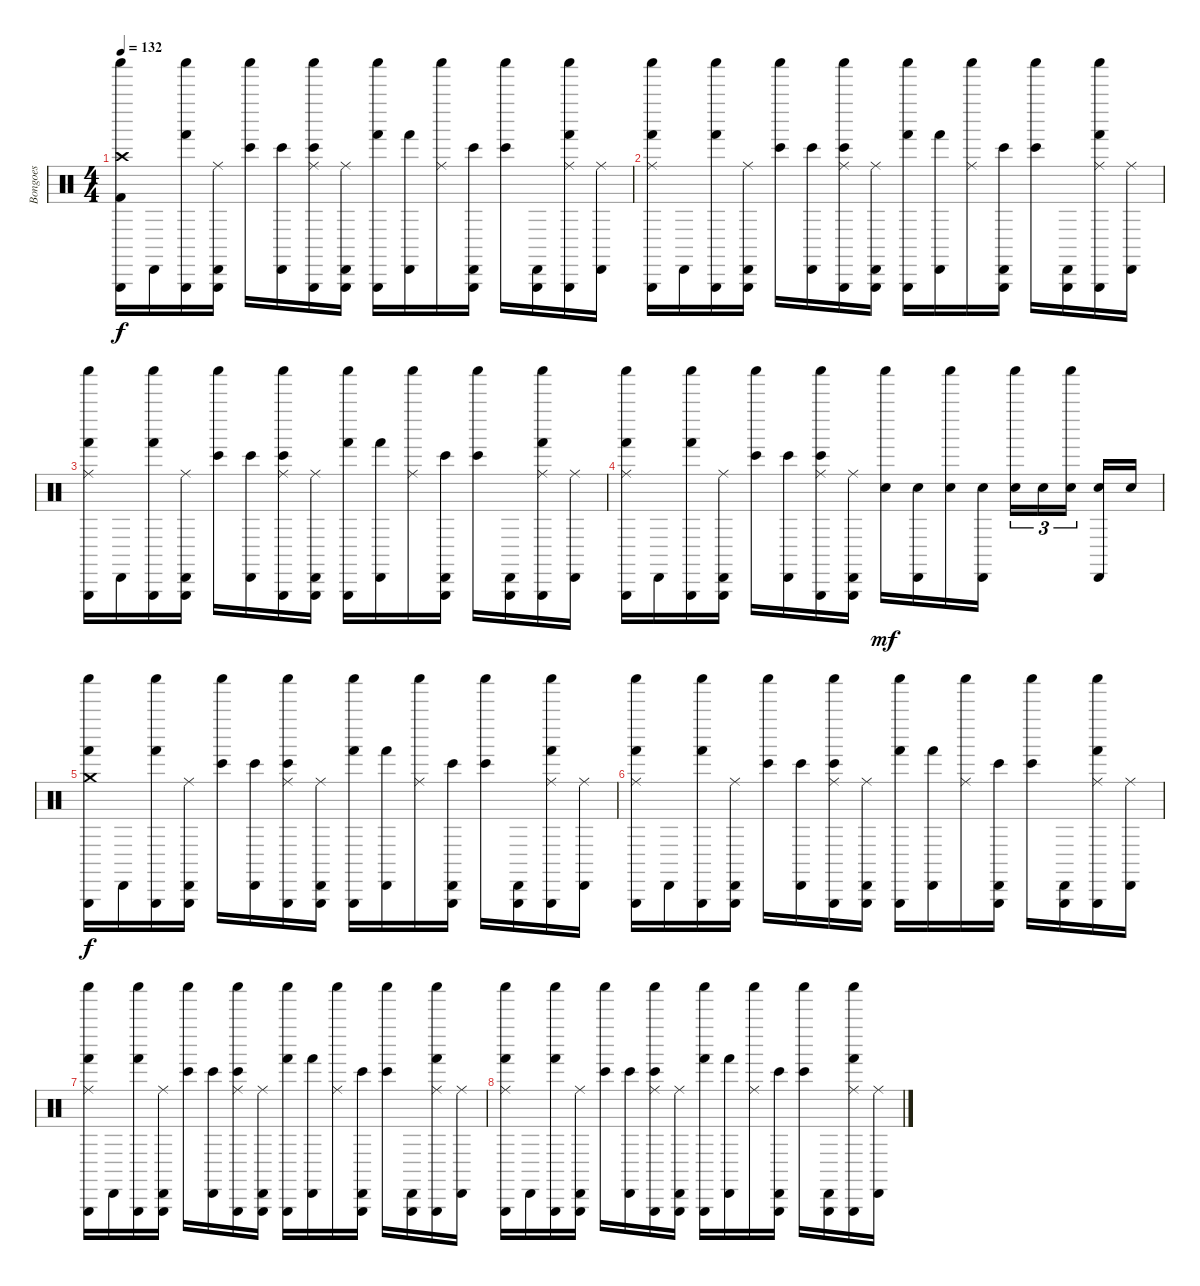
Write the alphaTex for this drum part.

\track ("Bongoes" "Bongoes") {instrument percussion}
\staff {score}
\articulation defaults
\ts (4 4)
\tempo 132
\clef neutral
\ks c
("Shaker (hit)" "Triangle (hit)" "Kick (hit) 2" "Crash high (hit)").16{dy f} "Cabasa (hit)".16 ("Shaker (hit)" "Triangle (hit)" "Hand (hit)").16 ("Cabasa (hit)" "Triangle (hit)" "Ride (middle)").16 ("Shaker (hit)" "Bongo High (hit)").16 ("Cabasa (hit)" "Bongo High (hit)").16 ("Shaker (hit)" "Triangle (hit)" "Bongo High (hit)" "Ride (middle)").16 ("Cabasa (hit)" "Triangle (hit)" "Ride (middle)").16 ("Shaker (hit)" "Triangle (hit)" "Hand (hit)").16 ("Cabasa (hit)" "Hand (hit)").16 ("Shaker (hit)" "Ride (middle)").16 ("Cabasa (hit)" "Triangle (hit)" "Bongo High (hit)").16 ("Shaker (hit)" "Bongo High (hit)").16 ("Cabasa (hit)" "Triangle (hit)").16 ("Shaker (hit)" "Triangle (hit)" "Hand (hit)" "Ride (middle)").16 ("Cabasa (hit)" "Ride (middle)").16 |
("Shaker (hit)" "Triangle (hit)" "Hand (hit)" "Ride (middle)").16 "Cabasa (hit)".16 ("Shaker (hit)" "Triangle (hit)" "Hand (hit)").16 ("Cabasa (hit)" "Triangle (hit)" "Ride (middle)").16 ("Shaker (hit)" "Bongo High (hit)").16 ("Cabasa (hit)" "Bongo High (hit)").16 ("Shaker (hit)" "Triangle (hit)" "Bongo High (hit)" "Ride (middle)").16 ("Cabasa (hit)" "Triangle (hit)" "Ride (middle)").16 ("Shaker (hit)" "Triangle (hit)" "Hand (hit)").16 ("Cabasa (hit)" "Hand (hit)").16 ("Shaker (hit)" "Ride (middle)").16 ("Cabasa (hit)" "Triangle (hit)" "Bongo High (hit)").16 ("Shaker (hit)" "Bongo High (hit)").16 ("Cabasa (hit)" "Triangle (hit)").16 ("Shaker (hit)" "Triangle (hit)" "Hand (hit)" "Ride (middle)").16 ("Cabasa (hit)" "Ride (middle)").16 |
("Shaker (hit)" "Triangle (hit)" "Hand (hit)" "Ride (middle)").16 "Cabasa (hit)".16 ("Shaker (hit)" "Triangle (hit)" "Hand (hit)").16 ("Cabasa (hit)" "Triangle (hit)" "Ride (middle)").16 ("Shaker (hit)" "Bongo High (hit)").16 ("Cabasa (hit)" "Bongo High (hit)").16 ("Shaker (hit)" "Triangle (hit)" "Bongo High (hit)" "Ride (middle)").16 ("Cabasa (hit)" "Triangle (hit)" "Ride (middle)").16 ("Shaker (hit)" "Triangle (hit)" "Hand (hit)").16 ("Cabasa (hit)" "Hand (hit)").16 ("Shaker (hit)" "Ride (middle)").16 ("Cabasa (hit)" "Triangle (hit)" "Bongo High (hit)").16 ("Shaker (hit)" "Bongo High (hit)").16 ("Cabasa (hit)" "Triangle (hit)").16 ("Shaker (hit)" "Triangle (hit)" "Hand (hit)" "Ride (middle)").16 ("Cabasa (hit)" "Ride (middle)").16 |
("Shaker (hit)" "Triangle (hit)" "Hand (hit)" "Ride (middle)").16 "Cabasa (hit)".16 ("Shaker (hit)" "Triangle (hit)" "Hand (hit)").16 ("Cabasa (hit)" "Triangle (hit)" "Ride (middle)").16 ("Shaker (hit)" "Bongo High (hit)").16 ("Cabasa (hit)" "Bongo High (hit)").16 ("Shaker (hit)" "Triangle (hit)" "Bongo High (hit)" "Ride (middle)").16 ("Cabasa (hit)" "Triangle (hit)" "Ride (middle)").16 ("Shaker (hit)" "Snare (hit) 2").16{dy mf} ("Cabasa (hit)" "Snare (hit) 2").16 ("Shaker (hit)" "Snare (hit) 2").16 ("Cabasa (hit)" "Snare (hit) 2").16 ("Shaker (hit)" "Snare (hit) 2").16{tu (3 2)} "Snare (hit) 2".16{tu (3 2)} ("Shaker (hit)" "Snare (hit) 2").16{tu (3 2)} ("Cabasa (hit)" "Snare (hit) 2").16 "Snare (hit) 2".16 |
("Shaker (hit)" "Triangle (hit)" "Hand (hit)" "Crash medium (hit)").16{dy f} "Cabasa (hit)".16 ("Shaker (hit)" "Triangle (hit)" "Hand (hit)").16 ("Cabasa (hit)" "Triangle (hit)" "Ride (middle)").16 ("Shaker (hit)" "Bongo High (hit)").16 ("Cabasa (hit)" "Bongo High (hit)").16 ("Shaker (hit)" "Triangle (hit)" "Bongo High (hit)" "Ride (middle)").16 ("Cabasa (hit)" "Triangle (hit)" "Ride (middle)").16 ("Shaker (hit)" "Triangle (hit)" "Hand (hit)").16 ("Cabasa (hit)" "Hand (hit)").16 ("Shaker (hit)" "Ride (middle)").16 ("Cabasa (hit)" "Triangle (hit)" "Bongo High (hit)").16 ("Shaker (hit)" "Bongo High (hit)").16 ("Cabasa (hit)" "Triangle (hit)").16 ("Shaker (hit)" "Triangle (hit)" "Hand (hit)" "Ride (middle)").16 ("Cabasa (hit)" "Ride (middle)").16 |
("Shaker (hit)" "Triangle (hit)" "Hand (hit)" "Ride (middle)").16 "Cabasa (hit)".16 ("Shaker (hit)" "Triangle (hit)" "Hand (hit)").16 ("Cabasa (hit)" "Triangle (hit)" "Ride (middle)").16 ("Shaker (hit)" "Bongo High (hit)").16 ("Cabasa (hit)" "Bongo High (hit)").16 ("Shaker (hit)" "Triangle (hit)" "Bongo High (hit)" "Ride (middle)").16 ("Cabasa (hit)" "Triangle (hit)" "Ride (middle)").16 ("Shaker (hit)" "Triangle (hit)" "Hand (hit)").16 ("Cabasa (hit)" "Hand (hit)").16 ("Shaker (hit)" "Ride (middle)").16 ("Cabasa (hit)" "Triangle (hit)" "Bongo High (hit)").16 ("Shaker (hit)" "Bongo High (hit)").16 ("Cabasa (hit)" "Triangle (hit)").16 ("Shaker (hit)" "Triangle (hit)" "Hand (hit)" "Ride (middle)").16 ("Cabasa (hit)" "Ride (middle)").16 |
("Shaker (hit)" "Triangle (hit)" "Hand (hit)" "Ride (middle)").16 "Cabasa (hit)".16 ("Shaker (hit)" "Triangle (hit)" "Hand (hit)").16 ("Cabasa (hit)" "Triangle (hit)" "Ride (middle)").16 ("Shaker (hit)" "Bongo High (hit)").16 ("Cabasa (hit)" "Bongo High (hit)").16 ("Shaker (hit)" "Triangle (hit)" "Bongo High (hit)" "Ride (middle)").16 ("Cabasa (hit)" "Triangle (hit)" "Ride (middle)").16 ("Shaker (hit)" "Triangle (hit)" "Hand (hit)").16 ("Cabasa (hit)" "Hand (hit)").16 ("Shaker (hit)" "Ride (middle)").16 ("Cabasa (hit)" "Triangle (hit)" "Bongo High (hit)").16 ("Shaker (hit)" "Bongo High (hit)").16 ("Cabasa (hit)" "Triangle (hit)").16 ("Shaker (hit)" "Triangle (hit)" "Hand (hit)" "Ride (middle)").16 ("Cabasa (hit)" "Ride (middle)").16 |
("Shaker (hit)" "Triangle (hit)" "Hand (hit)" "Ride (middle)").16 "Cabasa (hit)".16 ("Shaker (hit)" "Triangle (hit)" "Hand (hit)").16 ("Cabasa (hit)" "Triangle (hit)" "Ride (middle)").16 ("Shaker (hit)" "Bongo High (hit)").16 ("Cabasa (hit)" "Bongo High (hit)").16 ("Shaker (hit)" "Triangle (hit)" "Bongo High (hit)" "Ride (middle)").16 ("Cabasa (hit)" "Triangle (hit)" "Ride (middle)").16 ("Shaker (hit)" "Triangle (hit)" "Hand (hit)").16 ("Cabasa (hit)" "Hand (hit)").16 ("Shaker (hit)" "Ride (middle)").16 ("Cabasa (hit)" "Triangle (hit)" "Bongo High (hit)").16 ("Shaker (hit)" "Bongo High (hit)").16 ("Cabasa (hit)" "Triangle (hit)").16 ("Shaker (hit)" "Triangle (hit)" "Hand (hit)" "Ride (middle)").16 ("Cabasa (hit)" "Ride (middle)").16
